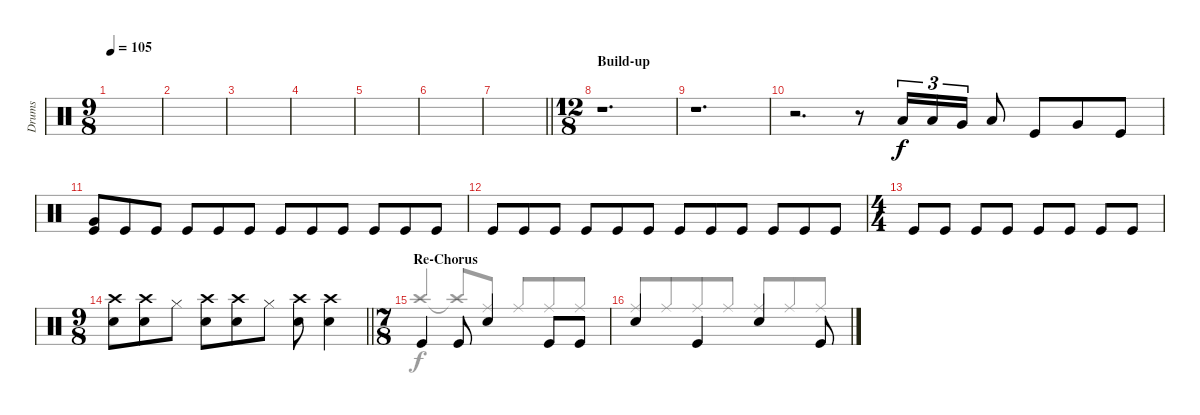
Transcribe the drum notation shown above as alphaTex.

\track ("Drums" "Drums") {instrument percussion}
\staff {score}
\articulation defaults
\voice
\ts (9 8)
\tempo 105
\clef neutral
\ks aminor
|
|
|
|
|
|
\barLineRight lightlight
|
\ts (12 8)
\section ("" "Build-up")
r.1{d volume 6} |
r.1{d} |
r.2{d} r.8 "Low Tom (hit)".16{tu (3 2)} "Low Tom (hit)".16{tu (3 2)} "Very Low Tom (hit)".16{tu (3 2)} "Low Tom (hit)".8 "Kick (hit)".8 "Very Low Tom (hit)".8 "Kick (hit)".8 |
("Kick (hit)" "Very Low Tom (hit)").8{volume 12} "Kick (hit)".8 "Kick (hit)".8 "Kick (hit)".8 "Kick (hit)".8 "Kick (hit)".8 "Kick (hit)".8 "Kick (hit)".8 "Kick (hit)".8 "Kick (hit)".8 "Kick (hit)".8 "Kick (hit)".8 |
"Kick (hit)".8 "Kick (hit)".8 "Kick (hit)".8 "Kick (hit)".8 "Kick (hit)".8 "Kick (hit)".8 "Kick (hit)".8 "Kick (hit)".8 "Kick (hit)".8 "Kick (hit)".8 "Kick (hit)".8 "Kick (hit)".8 |
\ts (4 4)
"Kick (hit)".8 "Kick (hit)".8 "Kick (hit)".8 "Kick (hit)".8 "Kick (hit)".8 "Kick (hit)".8 "Kick (hit)".8 "Kick (hit)".8 |
\ts (9 8)
\barLineRight lightlight
("Snare (hit) 2" "Crash high (hit)").8 ("Snare (hit) 2" "Crash high (hit)").8 "Hi-Hat (closed)".8 ("Snare (hit) 2" "Crash high (hit)").8 ("Snare (hit) 2" "Crash high (hit)").8 "Hi-Hat (closed)".8 ("Snare (hit) 2" "Crash high (hit)").8 ("Snare (hit) 2" "Crash high (hit)").4 |
\ts (7 8)
\section ("" "Re-Chorus")
"Kick (hit)".4 "Kick (hit)".8 "Snare (hit) 2".4 "Kick (hit)".8 "Kick (hit)".8 |
"Snare (hit) 2".4 "Kick (hit)".4 "Snare (hit) 2".4 "Kick (hit)".8
\voice
\clef neutral
\ottava regular
\simile none
\ks aminor
|
|
|
|
|
|
\barLineRight lightlight
|
|
|
|
|
|
|
\barLineRight lightlight
|
"Crash high (hit)".4{beam Up} "Crash high (hit)"{t}.8{beam Up} "Ride (middle)".8{beam Up} "Ride (middle)".8{beam Up} "Ride (middle)".8{beam Up} "Ride (middle)".8{beam Up} |
"Ride (middle)".8{beam Up} "Ride (middle)".8{beam Up} "Ride (middle)".8{beam Up} "Ride (middle)".8{beam Up} "Ride (middle)".8{beam Up} "Ride (middle)".8{beam Up} "Ride (middle)".8{beam Up}
